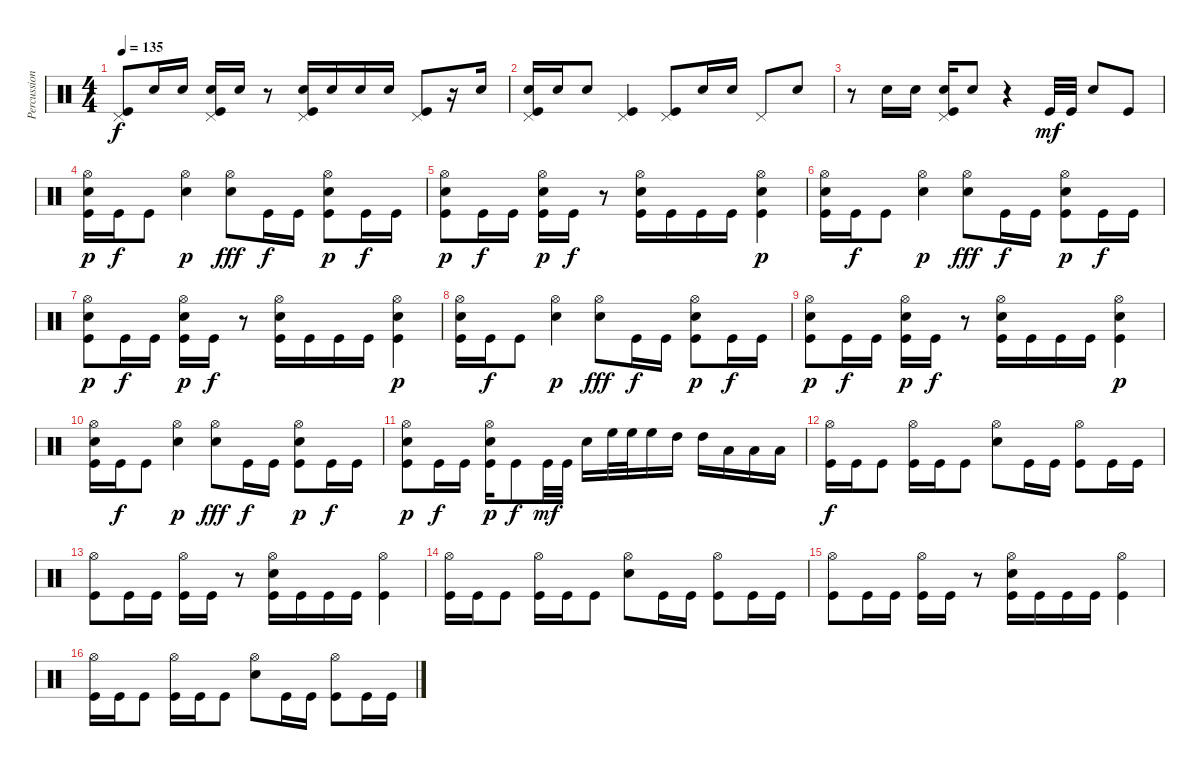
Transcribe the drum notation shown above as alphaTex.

\track ("Percussion" "Percussion") {instrument percussion}
\staff {score}
\articulation defaults
\ts (4 4)
\tempo 135
\clef neutral
\ks c
("Pedal Hi-Hat (hit)" "Kick (hit)").8{dy f} "Electric Snare (hit)".16 "Electric Snare (hit)".16 ("Pedal Hi-Hat (hit)" "Electric Snare (hit)" "Kick (hit)").16 "Electric Snare (hit)".16 r.8 ("Pedal Hi-Hat (hit)" "Electric Snare (hit)" "Kick (hit)").16 "Electric Snare (hit)".16 "Electric Snare (hit)".16 "Electric Snare (hit)".16 ("Pedal Hi-Hat (hit)" "Kick (hit)").8 r.16 "Electric Snare (hit)".16 |
("Pedal Hi-Hat (hit)" "Electric Snare (hit)" "Kick (hit)").16 "Electric Snare (hit)".16 "Electric Snare (hit)".8 ("Pedal Hi-Hat (hit)" "Kick (hit)").4 ("Pedal Hi-Hat (hit)" "Kick (hit)").8 "Electric Snare (hit)".16 "Electric Snare (hit)".16 "Pedal Hi-Hat (hit)".8 "Electric Snare (hit)".8 |
r.8 "Electric Snare (hit)".16 "Electric Snare (hit)".16 ("Pedal Hi-Hat (hit)" "Electric Snare (hit)" "Kick (hit)").16 "Electric Snare (hit)".8 r.4 "Kick (hit)".32{dy mf} "Kick (hit)".32 "Electric Snare (hit)".8 "Kick (hit)".8 |
("Hi-Hat (open)" "Electric Snare (hit)" "Kick (hit)").16{dy p} "Kick (hit)".16{dy f} "Kick (hit)".8 ("Hi-Hat (open)" "Electric Snare (hit)").4{dy p} ("Hi-Hat (open)" "Electric Snare (hit)").8{dy fff} "Kick (hit)".16{dy f} "Kick (hit)".16 ("Hi-Hat (open)" "Electric Snare (hit)" "Kick (hit)").8{dy p} "Kick (hit)".16{dy f} "Kick (hit)".16 |
("Hi-Hat (open)" "Electric Snare (hit)" "Kick (hit)").8{dy p} "Kick (hit)".16{dy f} "Kick (hit)".16 ("Hi-Hat (open)" "Electric Snare (hit)" "Kick (hit)").16{dy p} "Kick (hit)".16{dy f} r.8 ("Hi-Hat (open)" "Electric Snare (hit)" "Kick (hit)").16 "Kick (hit)".16 "Kick (hit)".16 "Kick (hit)".16 ("Hi-Hat (open)" "Electric Snare (hit)" "Kick (hit)").4{dy p} |
("Hi-Hat (open)" "Electric Snare (hit)" "Kick (hit)").16 "Kick (hit)".16{dy f} "Kick (hit)".8 ("Hi-Hat (open)" "Electric Snare (hit)").4{dy p} ("Hi-Hat (open)" "Electric Snare (hit)").8{dy fff} "Kick (hit)".16{dy f} "Kick (hit)".16 ("Hi-Hat (open)" "Electric Snare (hit)" "Kick (hit)").8{dy p} "Kick (hit)".16{dy f} "Kick (hit)".16 |
("Hi-Hat (open)" "Electric Snare (hit)" "Kick (hit)").8{dy p} "Kick (hit)".16{dy f} "Kick (hit)".16 ("Hi-Hat (open)" "Electric Snare (hit)" "Kick (hit)").16{dy p} "Kick (hit)".16{dy f} r.8 ("Hi-Hat (open)" "Electric Snare (hit)" "Kick (hit)").16 "Kick (hit)".16 "Kick (hit)".16 "Kick (hit)".16 ("Hi-Hat (open)" "Electric Snare (hit)" "Kick (hit)").4{dy p} |
("Hi-Hat (open)" "Electric Snare (hit)" "Kick (hit)").16 "Kick (hit)".16{dy f} "Kick (hit)".8 ("Hi-Hat (open)" "Electric Snare (hit)").4{dy p} ("Hi-Hat (open)" "Electric Snare (hit)").8{dy fff} "Kick (hit)".16{dy f} "Kick (hit)".16 ("Hi-Hat (open)" "Electric Snare (hit)" "Kick (hit)").8{dy p} "Kick (hit)".16{dy f} "Kick (hit)".16 |
("Hi-Hat (open)" "Electric Snare (hit)" "Kick (hit)").8{dy p} "Kick (hit)".16{dy f} "Kick (hit)".16 ("Hi-Hat (open)" "Electric Snare (hit)" "Kick (hit)").16{dy p} "Kick (hit)".16{dy f} r.8 ("Hi-Hat (open)" "Electric Snare (hit)" "Kick (hit)").16 "Kick (hit)".16 "Kick (hit)".16 "Kick (hit)".16 ("Hi-Hat (open)" "Electric Snare (hit)" "Kick (hit)").4{dy p} |
("Hi-Hat (open)" "Electric Snare (hit)" "Kick (hit)").16 "Kick (hit)".16{dy f} "Kick (hit)".8 ("Hi-Hat (open)" "Electric Snare (hit)").4{dy p} ("Hi-Hat (open)" "Electric Snare (hit)").8{dy fff} "Kick (hit)".16{dy f} "Kick (hit)".16 ("Hi-Hat (open)" "Electric Snare (hit)" "Kick (hit)").8{dy p} "Kick (hit)".16{dy f} "Kick (hit)".16 |
("Hi-Hat (open)" "Electric Snare (hit)" "Kick (hit)").8{dy p} "Kick (hit)".16{dy f} "Kick (hit)".16 ("Hi-Hat (open)" "Electric Snare (hit)" "Kick (hit)").16{dy p} "Kick (hit)".8{dy f} "Kick (hit)".32{dy mf} "Kick (hit)".32 "Electric Snare (hit)".16 "High Floor Tom (hit)".32 "High Floor Tom (hit)".32 "High Floor Tom (hit)".16 "High Tom (hit)".16 "High Tom (hit)".16 "Low Tom (hit)".16 "Low Tom (hit)".16 "Low Floor Tom (hit)".16 |
("Hi-Hat (open)" "Kick (hit)").16{dy f} "Kick (hit)".16 "Kick (hit)".8 ("Hi-Hat (open)" "Kick (hit)").16 "Kick (hit)".16 "Kick (hit)".8 ("Hi-Hat (open)" "Electric Snare (hit)").8 "Kick (hit)".16 "Kick (hit)".16 ("Hi-Hat (open)" "Kick (hit)").8 "Kick (hit)".16 "Kick (hit)".16 |
("Hi-Hat (open)" "Kick (hit)").8 "Kick (hit)".16 "Kick (hit)".16 ("Hi-Hat (open)" "Kick (hit)").16 "Kick (hit)".16 r.8 ("Hi-Hat (open)" "Electric Snare (hit)" "Kick (hit)").16 "Kick (hit)".16 "Kick (hit)".16 "Kick (hit)".16 ("Hi-Hat (open)" "Kick (hit)").4 |
("Hi-Hat (open)" "Kick (hit)").16 "Kick (hit)".16 "Kick (hit)".8 ("Hi-Hat (open)" "Kick (hit)").16 "Kick (hit)".16 "Kick (hit)".8 ("Hi-Hat (open)" "Electric Snare (hit)").8 "Kick (hit)".16 "Kick (hit)".16 ("Hi-Hat (open)" "Kick (hit)").8 "Kick (hit)".16 "Kick (hit)".16 |
("Hi-Hat (open)" "Kick (hit)").8 "Kick (hit)".16 "Kick (hit)".16 ("Hi-Hat (open)" "Kick (hit)").16 "Kick (hit)".16 r.8 ("Hi-Hat (open)" "Electric Snare (hit)" "Kick (hit)").16 "Kick (hit)".16 "Kick (hit)".16 "Kick (hit)".16 ("Hi-Hat (open)" "Kick (hit)").4 |
("Hi-Hat (open)" "Kick (hit)").16 "Kick (hit)".16 "Kick (hit)".8 ("Hi-Hat (open)" "Kick (hit)").16 "Kick (hit)".16 "Kick (hit)".8 ("Hi-Hat (open)" "Electric Snare (hit)").8 "Kick (hit)".16 "Kick (hit)".16 ("Hi-Hat (open)" "Kick (hit)").8 "Kick (hit)".16 "Kick (hit)".16
